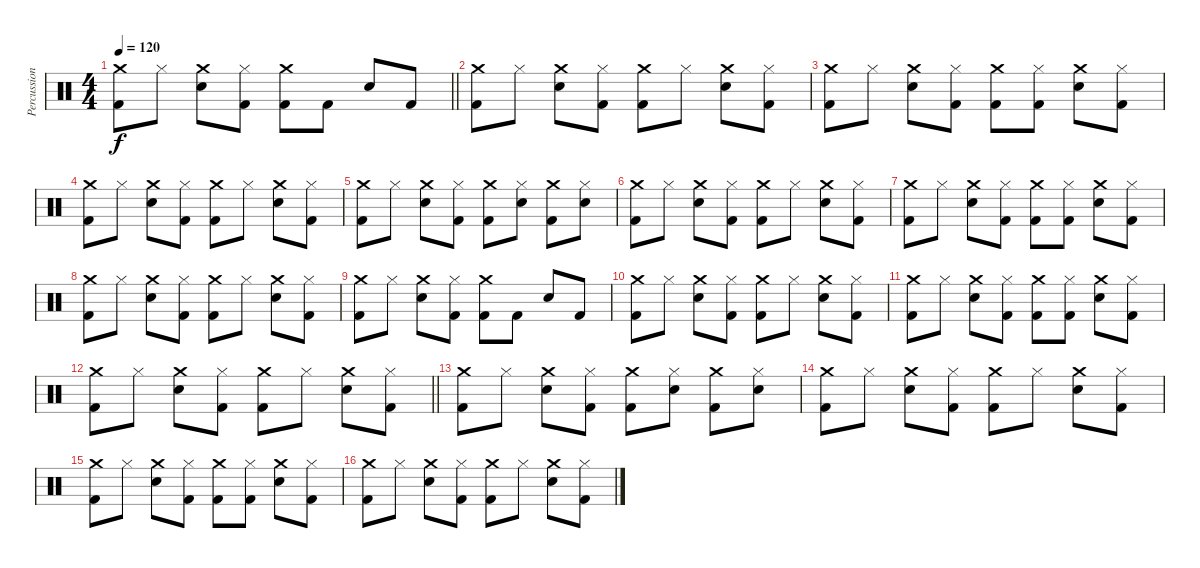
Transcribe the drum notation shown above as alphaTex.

\track ("Percussion" "Percussion") {instrument percussion}
\staff {score}
\articulation defaults
\ts (4 4)
\tempo 120
\clef neutral
\barLineRight lightlight
\ks c
("Crash medium (hit)" "Kick (hit) 2").8{dy f} "Hi-Hat (closed)".8 ("Crash medium (hit)" "Electric Snare (hit)").8 ("Hi-Hat (closed)" "Kick (hit) 2").8 ("Crash medium (hit)" "Kick (hit) 2").8 "Kick (hit) 2".8 "Electric Snare (hit)".8 "Kick (hit) 2".8 |
("Crash medium (hit)" "Kick (hit) 2").8 "Hi-Hat (closed)".8 ("Crash medium (hit)" "Electric Snare (hit)").8 ("Hi-Hat (closed)" "Kick (hit) 2").8 ("Crash medium (hit)" "Kick (hit) 2").8 "Hi-Hat (closed)".8 ("Crash medium (hit)" "Electric Snare (hit)").8 ("Hi-Hat (closed)" "Kick (hit) 2").8 |
("Crash medium (hit)" "Kick (hit) 2").8 "Hi-Hat (closed)".8 ("Crash medium (hit)" "Electric Snare (hit)").8 ("Hi-Hat (closed)" "Kick (hit) 2").8 ("Crash medium (hit)" "Kick (hit) 2").8 ("Hi-Hat (closed)" "Kick (hit) 2").8 ("Crash medium (hit)" "Electric Snare (hit)").8 ("Hi-Hat (closed)" "Kick (hit) 2").8 |
("Crash medium (hit)" "Kick (hit) 2").8 "Hi-Hat (closed)".8 ("Crash medium (hit)" "Electric Snare (hit)").8 ("Hi-Hat (closed)" "Kick (hit) 2").8 ("Crash medium (hit)" "Kick (hit) 2").8 "Hi-Hat (closed)".8 ("Crash medium (hit)" "Electric Snare (hit)").8 ("Hi-Hat (closed)" "Kick (hit) 2").8 |
("Crash medium (hit)" "Kick (hit) 2").8 "Hi-Hat (closed)".8 ("Crash medium (hit)" "Electric Snare (hit)").8 ("Hi-Hat (closed)" "Kick (hit) 2").8 ("Crash medium (hit)" "Kick (hit) 2").8 ("Hi-Hat (closed)" "Electric Snare (hit)").8 ("Crash medium (hit)" "Kick (hit) 2").8 ("Hi-Hat (closed)" "Electric Snare (hit)").8 |
("Crash medium (hit)" "Kick (hit) 2").8 "Hi-Hat (closed)".8 ("Crash medium (hit)" "Electric Snare (hit)").8 ("Hi-Hat (closed)" "Kick (hit) 2").8 ("Crash medium (hit)" "Kick (hit) 2").8 "Hi-Hat (closed)".8 ("Crash medium (hit)" "Electric Snare (hit)").8 ("Hi-Hat (closed)" "Kick (hit) 2").8 |
("Crash medium (hit)" "Kick (hit) 2").8 "Hi-Hat (closed)".8 ("Crash medium (hit)" "Electric Snare (hit)").8 ("Hi-Hat (closed)" "Kick (hit) 2").8 ("Crash medium (hit)" "Kick (hit) 2").8 ("Hi-Hat (closed)" "Kick (hit) 2").8 ("Crash medium (hit)" "Electric Snare (hit)").8 ("Hi-Hat (closed)" "Kick (hit) 2").8 |
("Crash medium (hit)" "Kick (hit) 2").8 "Hi-Hat (closed)".8 ("Crash medium (hit)" "Electric Snare (hit)").8 ("Hi-Hat (closed)" "Kick (hit) 2").8 ("Crash medium (hit)" "Kick (hit) 2").8 "Hi-Hat (closed)".8 ("Crash medium (hit)" "Electric Snare (hit)").8 ("Hi-Hat (closed)" "Kick (hit) 2").8 |
("Crash medium (hit)" "Kick (hit) 2").8 "Hi-Hat (closed)".8 ("Crash medium (hit)" "Electric Snare (hit)").8 ("Hi-Hat (closed)" "Kick (hit) 2").8 ("Crash medium (hit)" "Kick (hit) 2").8 "Kick (hit) 2".8 "Electric Snare (hit)".8 "Kick (hit) 2".8 |
("Crash medium (hit)" "Kick (hit) 2").8 "Hi-Hat (closed)".8 ("Crash medium (hit)" "Electric Snare (hit)").8 ("Hi-Hat (closed)" "Kick (hit) 2").8 ("Crash medium (hit)" "Kick (hit) 2").8 "Hi-Hat (closed)".8 ("Crash medium (hit)" "Electric Snare (hit)").8 ("Hi-Hat (closed)" "Kick (hit) 2").8 |
("Crash medium (hit)" "Kick (hit) 2").8 "Hi-Hat (closed)".8 ("Crash medium (hit)" "Electric Snare (hit)").8 ("Hi-Hat (closed)" "Kick (hit) 2").8 ("Crash medium (hit)" "Kick (hit) 2").8 ("Hi-Hat (closed)" "Kick (hit) 2").8 ("Crash medium (hit)" "Electric Snare (hit)").8 ("Hi-Hat (closed)" "Kick (hit) 2").8 |
\barLineRight lightlight
("Crash medium (hit)" "Kick (hit) 2").8 "Hi-Hat (closed)".8 ("Crash medium (hit)" "Electric Snare (hit)").8 ("Hi-Hat (closed)" "Kick (hit) 2").8 ("Crash medium (hit)" "Kick (hit) 2").8 "Hi-Hat (closed)".8 ("Crash medium (hit)" "Electric Snare (hit)").8 ("Hi-Hat (closed)" "Kick (hit) 2").8 |
("Crash medium (hit)" "Kick (hit) 2").8 "Hi-Hat (closed)".8 ("Crash medium (hit)" "Electric Snare (hit)").8 ("Hi-Hat (closed)" "Kick (hit) 2").8 ("Crash medium (hit)" "Kick (hit) 2").8 ("Hi-Hat (closed)" "Electric Snare (hit)").8 ("Crash medium (hit)" "Kick (hit) 2").8 ("Hi-Hat (closed)" "Electric Snare (hit)").8 |
("Crash medium (hit)" "Kick (hit) 2").8 "Hi-Hat (closed)".8 ("Crash medium (hit)" "Electric Snare (hit)").8 ("Hi-Hat (closed)" "Kick (hit) 2").8 ("Crash medium (hit)" "Kick (hit) 2").8 "Hi-Hat (closed)".8 ("Crash medium (hit)" "Electric Snare (hit)").8 ("Hi-Hat (closed)" "Kick (hit) 2").8 |
("Crash medium (hit)" "Kick (hit) 2").8 "Hi-Hat (closed)".8 ("Crash medium (hit)" "Electric Snare (hit)").8 ("Hi-Hat (closed)" "Kick (hit) 2").8 ("Crash medium (hit)" "Kick (hit) 2").8 ("Hi-Hat (closed)" "Kick (hit) 2").8 ("Crash medium (hit)" "Electric Snare (hit)").8 ("Hi-Hat (closed)" "Kick (hit) 2").8 |
("Crash medium (hit)" "Kick (hit) 2").8 "Hi-Hat (closed)".8 ("Crash medium (hit)" "Electric Snare (hit)").8 ("Hi-Hat (closed)" "Kick (hit) 2").8 ("Crash medium (hit)" "Kick (hit) 2").8 "Hi-Hat (closed)".8 ("Crash medium (hit)" "Electric Snare (hit)").8 ("Hi-Hat (closed)" "Kick (hit) 2").8
